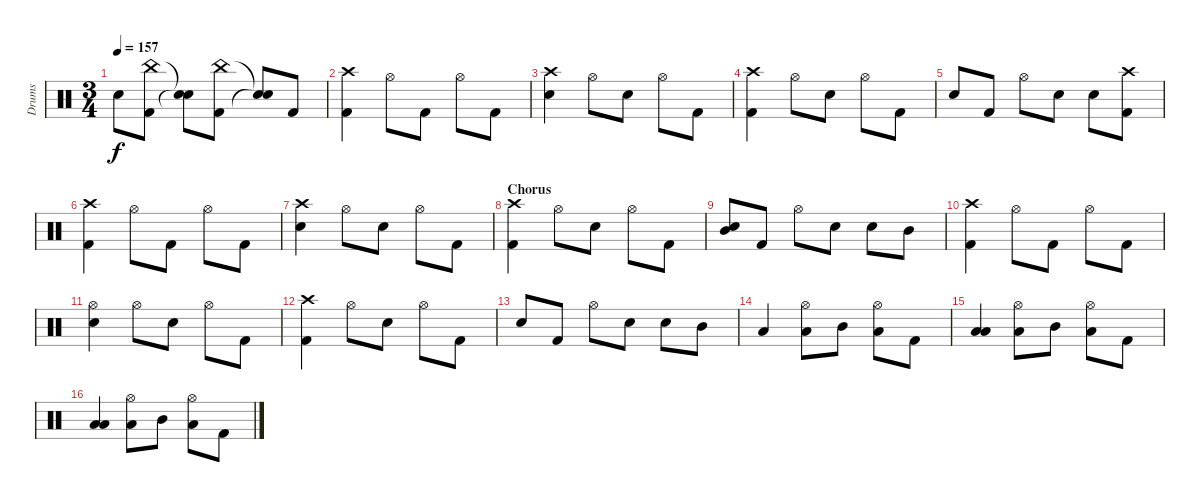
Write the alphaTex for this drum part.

\track ("Drums" "Drums") {instrument percussion}
\staff {score}
\articulation defaults
\ts (3 4)
\tempo 157
\clef neutral
\ks c "Electric Snare (hit)".8{dy f}
("China (hit)" "Kick (hit) 2").8 ("Snare (hit)"{t} "Snare (hit)"{t}).8 ("China (hit)" "Kick (hit) 2").8 ("Snare (hit)"{t} "Snare (hit)"{t}).8 "Kick (hit) 2".8 |
("Crash high (hit)" "Kick (hit) 2").4 "Hi-Hat (open)".8 "Kick (hit) 2".8 "Hi-Hat (open)".8 "Kick (hit) 2".8 |
("Crash high (hit)" "Electric Snare (hit)").4 "Hi-Hat (open)".8 "Electric Snare (hit)".8 "Hi-Hat (open)".8 "Kick (hit) 2".8 |
("Crash high (hit)" "Kick (hit) 2").4 "Hi-Hat (open)".8 "Electric Snare (hit)".8 "Hi-Hat (open)".8 "Kick (hit) 2".8 |
"Electric Snare (hit)".8 "Kick (hit) 2".8 "Hi-Hat (open)".8 "Electric Snare (hit)".8 "Electric Snare (hit)".8 ("Crash high (hit)" "Kick (hit) 2").8 |
("Crash high (hit)" "Kick (hit) 2").4 "Hi-Hat (open)".8 "Kick (hit) 2".8 "Hi-Hat (open)".8 "Kick (hit) 2".8 |
("Crash high (hit)" "Electric Snare (hit)").4 "Hi-Hat (open)".8 "Electric Snare (hit)".8 "Hi-Hat (open)".8 "Kick (hit) 2".8 |
\section ("" "Chorus")
("Crash high (hit)" "Kick (hit) 2").4 "Hi-Hat (open)".8 "Electric Snare (hit)".8 "Hi-Hat (open)".8 "Kick (hit) 2".8 |
("Mid Tom (hit)" "Electric Snare (hit)").8 "Kick (hit) 2".8 "Hi-Hat (open)".8 "Electric Snare (hit)".8 "Electric Snare (hit)".8 "Mid Tom (hit)".8 |
("Crash high (hit)" "Kick (hit) 2").4 "Hi-Hat (open)".8 "Kick (hit) 2".8 "Hi-Hat (open)".8 "Kick (hit) 2".8 |
("Hi-Hat (open)" "Electric Snare (hit)").4 "Hi-Hat (open)".8 "Electric Snare (hit)".8 "Hi-Hat (open)".8 "Kick (hit) 2".8 |
("Crash high (hit)" "Kick (hit) 2").4 "Hi-Hat (open)".8 "Electric Snare (hit)".8 "Hi-Hat (open)".8 "Kick (hit) 2".8 |
"Electric Snare (hit)".8 "Kick (hit) 2".8 "Hi-Hat (open)".8 "Electric Snare (hit)".8 "Electric Snare (hit)".8 "Mid Tom (hit)".8 |
"Low Floor Tom (hit)".4 ("Hi-Hat (open)" "Low Floor Tom (hit)").8 "Mid Tom (hit)".8 ("Hi-Hat (open)" "Low Floor Tom (hit)").8 "Kick (hit) 2".8 |
("Low Tom (hit)" "Low Floor Tom (hit)").4 ("Hi-Hat (open)" "Low Floor Tom (hit)").8 "Mid Tom (hit)".8 ("Hi-Hat (open)" "Low Floor Tom (hit)").8 "Kick (hit) 2".8 |
("Low Tom (hit)" "Low Floor Tom (hit)").4 ("Hi-Hat (open)" "Low Floor Tom (hit)").8 "Mid Tom (hit)".8 ("Hi-Hat (open)" "Low Floor Tom (hit)").8 "Kick (hit) 2".8
